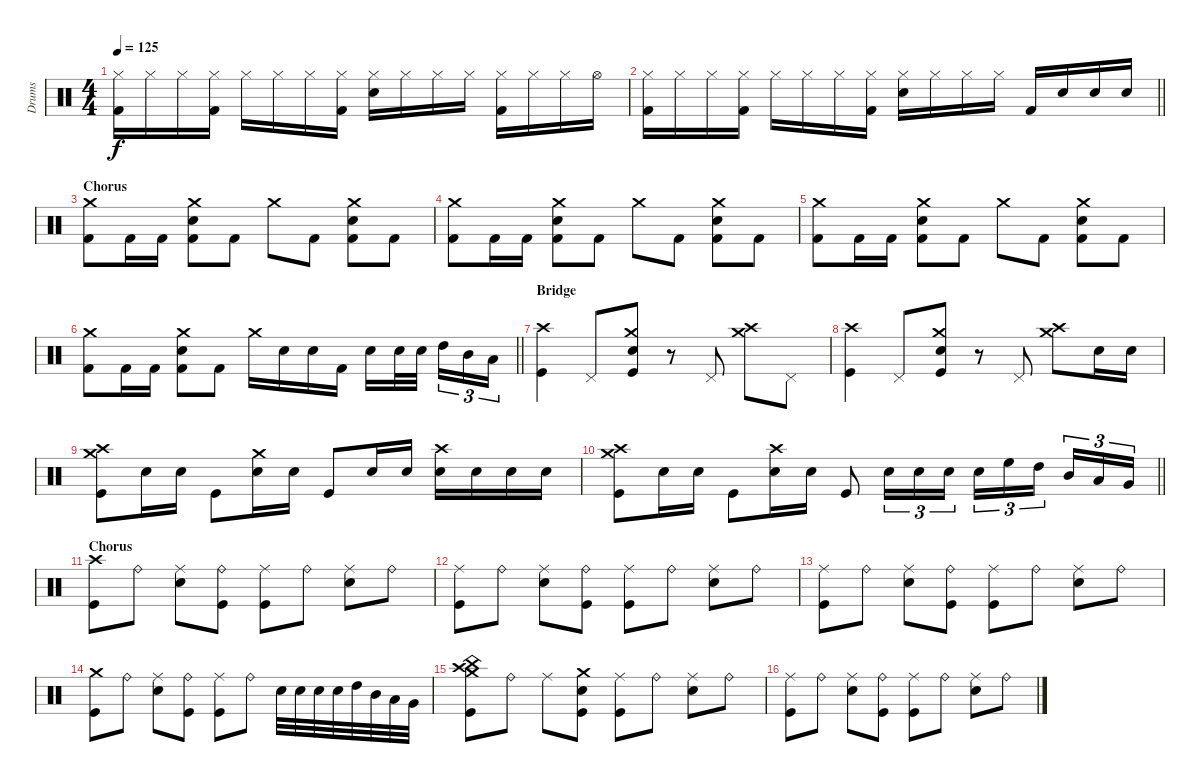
\track ("Drums" "Drums") {instrument percussion}
\staff {score}
\articulation defaults
\ts (4 4)
\tempo 125
\clef neutral
\ks c
("Hi-Hat (closed)" "Kick (hit) 2").16{dy f} "Hi-Hat (closed)".16 "Hi-Hat (closed)".16 ("Hi-Hat (closed)" "Kick (hit) 2").16 "Hi-Hat (closed)".16 "Hi-Hat (closed)".16 "Hi-Hat (closed)".16 ("Hi-Hat (closed)" "Kick (hit) 2").16 ("Hi-Hat (closed)" "Electric Snare (hit)").16 "Hi-Hat (closed)".16 "Hi-Hat (closed)".16 "Hi-Hat (closed)".16 ("Hi-Hat (closed)" "Kick (hit) 2").16 "Hi-Hat (closed)".16 "Hi-Hat (closed)".16 "Hi-Hat (open)".16 |
\barLineRight lightlight
("Hi-Hat (closed)" "Kick (hit) 2").16 "Hi-Hat (closed)".16 "Hi-Hat (closed)".16 ("Hi-Hat (closed)" "Kick (hit) 2").16 "Hi-Hat (closed)".16 "Hi-Hat (closed)".16 "Hi-Hat (closed)".16 ("Hi-Hat (closed)" "Kick (hit) 2").16 ("Hi-Hat (closed)" "Electric Snare (hit)").16 "Hi-Hat (closed)".16 "Hi-Hat (closed)".16 "Hi-Hat (closed)".16 "Kick (hit) 2".16 "Electric Snare (hit)".16 "Electric Snare (hit)".16 "Electric Snare (hit)".16 |
\section ("" "Chorus")
("Crash medium (hit)" "Kick (hit) 2").8 "Kick (hit) 2".16 "Kick (hit) 2".16 ("Crash medium (hit)" "Electric Snare (hit)" "Kick (hit) 2").8 "Kick (hit) 2".8 "Crash medium (hit)".8 "Kick (hit) 2".8 ("Crash medium (hit)" "Electric Snare (hit)" "Kick (hit) 2").8 "Kick (hit) 2".8 |
("Crash medium (hit)" "Kick (hit) 2").8 "Kick (hit) 2".16 "Kick (hit) 2".16 ("Crash medium (hit)" "Electric Snare (hit)" "Kick (hit) 2").8 "Kick (hit) 2".8 "Crash medium (hit)".8 "Kick (hit) 2".8 ("Crash medium (hit)" "Electric Snare (hit)" "Kick (hit) 2").8 "Kick (hit) 2".8 |
("Crash medium (hit)" "Kick (hit) 2").8 "Kick (hit) 2".16 "Kick (hit) 2".16 ("Crash medium (hit)" "Electric Snare (hit)" "Kick (hit) 2").8 "Kick (hit) 2".8 "Crash medium (hit)".8 "Kick (hit) 2".8 ("Crash medium (hit)" "Electric Snare (hit)" "Kick (hit) 2").8 "Kick (hit) 2".8 |
\barLineRight lightlight
("Crash medium (hit)" "Kick (hit) 2").8 "Kick (hit) 2".16 "Kick (hit) 2".16 ("Crash medium (hit)" "Electric Snare (hit)" "Kick (hit) 2").8 "Kick (hit) 2".8 "Crash medium (hit)".16 "Electric Snare (hit)".16 "Electric Snare (hit)".16 "Kick (hit) 2".16 "Electric Snare (hit)".16 "Electric Snare (hit)".32 "Electric Snare (hit)".32 "High Tom (hit)".16{tu (3 2)} "Mid Tom (hit)".16{tu (3 2)} "Low Tom (hit)".16{tu (3 2)} |
\section ("" "Bridge")
("Crash high (hit)" "Kick (hit)").4 "Pedal Hi-Hat (hit)".8 ("Crash medium (hit)" "Electric Snare (hit)" "Kick (hit)").8 r.8 "Pedal Hi-Hat (hit)".8 ("Crash high (hit)" "Crash medium (hit)").8 "Pedal Hi-Hat (hit)".8 |
("Crash high (hit)" "Kick (hit)").4 "Pedal Hi-Hat (hit)".8 ("Crash medium (hit)" "Electric Snare (hit)" "Kick (hit)").8 r.8 "Pedal Hi-Hat (hit)".8 ("Crash high (hit)" "Crash medium (hit)").8 "Electric Snare (hit)".16 "Electric Snare (hit)".16 |
("Crash high (hit)" "Crash medium (hit)" "Kick (hit)").8 "Electric Snare (hit)".16 "Electric Snare (hit)".16 "Kick (hit)".8 ("Crash medium (hit)" "Electric Snare (hit)").16 "Electric Snare (hit)".16 "Kick (hit)".8 "Electric Snare (hit)".16 "Electric Snare (hit)".16 ("Crash high (hit)" "Electric Snare (hit)").16 "Electric Snare (hit)".16 "Electric Snare (hit)".16 "Electric Snare (hit)".16 |
\barLineRight lightlight
("Crash medium (hit)" "Crash high (hit)" "Kick (hit)").8 "Electric Snare (hit)".16 "Electric Snare (hit)".16 "Kick (hit)".8 ("Crash high (hit)" "Electric Snare (hit)").16 "Electric Snare (hit)".16 "Kick (hit)".8 "Electric Snare (hit)".16{tu (3 2)} "Electric Snare (hit)".16{tu (3 2)} "Electric Snare (hit)".16{tu (3 2)} "Electric Snare (hit)".16{tu (3 2)} "High Floor Tom (hit)".16{tu (3 2)} "High Tom (hit)".16{tu (3 2)} "Mid Tom (hit)".16{tu (3 2)} "Low Tom (hit)".16{tu (3 2)} "Very Low Tom (hit)".16{tu (3 2)} |
\section ("" "Chorus")
("Crash high (hit)" "Kick (hit)").8 "Ride (bell)".8 ("Ride (middle)" "Electric Snare (hit)").8 ("Ride (bell)" "Kick (hit)").8 ("Ride (middle)" "Kick (hit)").8 "Ride (bell)".8 ("Ride (middle)" "Electric Snare (hit)").8 "Ride (bell)".8 |
("Ride (middle)" "Kick (hit)").8 "Ride (bell)".8 ("Ride (middle)" "Electric Snare (hit)").8 ("Ride (bell)" "Kick (hit)").8 ("Ride (middle)" "Kick (hit)").8 "Ride (bell)".8 ("Ride (middle)" "Electric Snare (hit)").8 "Ride (bell)".8 |
("Ride (middle)" "Kick (hit)").8 "Ride (bell)".8 ("Ride (middle)" "Electric Snare (hit)").8 ("Ride (bell)" "Kick (hit)").8 ("Ride (middle)" "Kick (hit)").8 "Ride (bell)".8 ("Ride (middle)" "Electric Snare (hit)").8 "Ride (bell)".8 |
("Crash medium (hit)" "Kick (hit)").8 "Ride (bell)".8 ("Ride (middle)" "Electric Snare (hit)").8 ("Ride (bell)" "Kick (hit)").8 ("Ride (middle)" "Kick (hit)").8 "Ride (bell)".8 "Electric Snare (hit)".32 "Electric Snare (hit)".32 "Electric Snare (hit)".32 "Electric Snare (hit)".32 "High Tom (hit)".32 "Mid Tom (hit)".32 "Low Tom (hit)".32 "Very Low Tom (hit)".32 |
("Crash medium (hit)" "Crash high (hit)" "China (hit)" "Kick (hit)").8 "Ride (bell)".8 "Ride (middle)".8 ("Crash medium (hit)" "Electric Snare (hit)" "Kick (hit)").8 ("Ride (middle)" "Kick (hit)").8 "Ride (bell)".8 ("Ride (middle)" "Electric Snare (hit)").8 "Ride (bell)".8 |
("Ride (middle)" "Kick (hit)").8 "Ride (bell)".8 ("Ride (middle)" "Electric Snare (hit)").8 ("Ride (bell)" "Kick (hit)").8 ("Ride (middle)" "Kick (hit)").8 "Ride (bell)".8 ("Ride (middle)" "Electric Snare (hit)").8 "Ride (bell)".8
